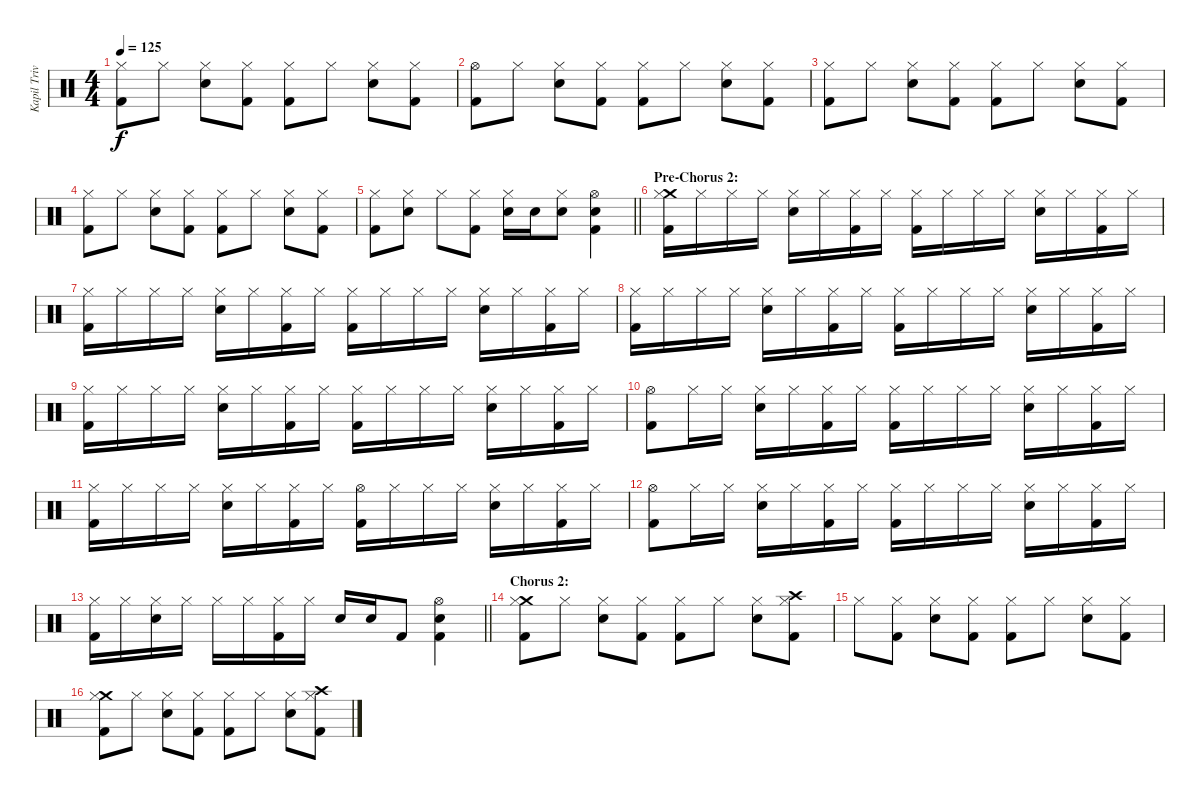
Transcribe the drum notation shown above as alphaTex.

\track ("Kapil Trivedi (Percussion)" "Kapil Triv") {instrument percussion}
\staff {score}
\articulation defaults
\ts (4 4)
\tempo 125
\clef neutral
\ks c
("Hi-Hat (closed)" "Kick (hit) 2").8{dy f} "Hi-Hat (closed)".8 ("Hi-Hat (closed)" "Snare (hit) 2").8 ("Hi-Hat (closed)" "Kick (hit) 2").8 ("Hi-Hat (closed)" "Kick (hit) 2").8 "Hi-Hat (closed)".8 ("Hi-Hat (closed)" "Snare (hit) 2").8 ("Hi-Hat (closed)" "Kick (hit) 2").8 |
("Hi-Hat (open)" "Kick (hit) 2").8 "Hi-Hat (closed)".8 ("Hi-Hat (closed)" "Snare (hit) 2").8 ("Hi-Hat (closed)" "Kick (hit) 2").8 ("Hi-Hat (closed)" "Kick (hit) 2").8 "Hi-Hat (closed)".8 ("Hi-Hat (closed)" "Snare (hit) 2").8 ("Hi-Hat (closed)" "Kick (hit) 2").8 |
("Hi-Hat (closed)" "Kick (hit) 2").8 "Hi-Hat (closed)".8 ("Hi-Hat (closed)" "Snare (hit) 2").8 ("Hi-Hat (closed)" "Kick (hit) 2").8 ("Hi-Hat (closed)" "Kick (hit) 2").8 "Hi-Hat (closed)".8 ("Hi-Hat (closed)" "Snare (hit) 2").8 ("Hi-Hat (closed)" "Kick (hit) 2").8 |
("Hi-Hat (closed)" "Kick (hit) 2").8 "Hi-Hat (closed)".8 ("Hi-Hat (closed)" "Snare (hit) 2").8 ("Hi-Hat (closed)" "Kick (hit) 2").8 ("Hi-Hat (closed)" "Kick (hit) 2").8 "Hi-Hat (closed)".8 ("Hi-Hat (closed)" "Snare (hit) 2").8 ("Hi-Hat (closed)" "Kick (hit) 2").8 |
\barLineRight lightlight
("Hi-Hat (closed)" "Kick (hit) 2").8 ("Hi-Hat (closed)" "Snare (hit) 2").8 "Hi-Hat (closed)".8 ("Hi-Hat (closed)" "Kick (hit) 2").8 ("Hi-Hat (closed)" "Snare (hit) 2").16 "Snare (hit) 2".16 ("Hi-Hat (closed)" "Snare (hit) 2").8 ("Hi-Hat (open)" "Snare (hit) 2" "Kick (hit) 2").4 |
\section ("" "Pre-Chorus 2:")
("Crash medium (hit)" "Hi-Hat (closed)" "Kick (hit) 2").16 "Hi-Hat (closed)".16 "Hi-Hat (closed)".16 "Hi-Hat (closed)".16 ("Hi-Hat (closed)" "Snare (hit) 2").16 "Hi-Hat (closed)".16 ("Hi-Hat (closed)" "Kick (hit) 2").16 "Hi-Hat (closed)".16 ("Hi-Hat (closed)" "Kick (hit) 2").16 "Hi-Hat (closed)".16 "Hi-Hat (closed)".16 "Hi-Hat (closed)".16 ("Hi-Hat (closed)" "Snare (hit) 2").16 "Hi-Hat (closed)".16 ("Hi-Hat (closed)" "Kick (hit) 2").16 "Hi-Hat (closed)".16 |
("Hi-Hat (closed)" "Kick (hit) 2").16 "Hi-Hat (closed)".16 "Hi-Hat (closed)".16 "Hi-Hat (closed)".16 ("Hi-Hat (closed)" "Snare (hit) 2").16 "Hi-Hat (closed)".16 ("Hi-Hat (closed)" "Kick (hit) 2").16 "Hi-Hat (closed)".16 ("Hi-Hat (closed)" "Kick (hit) 2").16 "Hi-Hat (closed)".16 "Hi-Hat (closed)".16 "Hi-Hat (closed)".16 ("Hi-Hat (closed)" "Snare (hit) 2").16 "Hi-Hat (closed)".16 ("Hi-Hat (closed)" "Kick (hit) 2").16 "Hi-Hat (closed)".16 |
("Hi-Hat (closed)" "Kick (hit) 2").16 "Hi-Hat (closed)".16 "Hi-Hat (closed)".16 "Hi-Hat (closed)".16 ("Hi-Hat (closed)" "Snare (hit) 2").16 "Hi-Hat (closed)".16 ("Hi-Hat (closed)" "Kick (hit) 2").16 "Hi-Hat (closed)".16 ("Hi-Hat (closed)" "Kick (hit) 2").16 "Hi-Hat (closed)".16 "Hi-Hat (closed)".16 "Hi-Hat (closed)".16 ("Hi-Hat (closed)" "Snare (hit) 2").16 "Hi-Hat (closed)".16 ("Hi-Hat (closed)" "Kick (hit) 2").16 "Hi-Hat (closed)".16 |
("Hi-Hat (closed)" "Kick (hit) 2").16 "Hi-Hat (closed)".16 "Hi-Hat (closed)".16 "Hi-Hat (closed)".16 ("Hi-Hat (closed)" "Snare (hit) 2").16 "Hi-Hat (closed)".16 ("Hi-Hat (closed)" "Kick (hit) 2").16 "Hi-Hat (closed)".16 ("Hi-Hat (closed)" "Kick (hit) 2").16 "Hi-Hat (closed)".16 "Hi-Hat (closed)".16 "Hi-Hat (closed)".16 ("Hi-Hat (closed)" "Snare (hit) 2").16 "Hi-Hat (closed)".16 ("Hi-Hat (closed)" "Kick (hit) 2").16 "Hi-Hat (closed)".16 |
("Hi-Hat (open)" "Kick (hit) 2").8 "Hi-Hat (closed)".16 "Hi-Hat (closed)".16 ("Hi-Hat (closed)" "Snare (hit) 2").16 "Hi-Hat (closed)".16 ("Hi-Hat (closed)" "Kick (hit) 2").16 "Hi-Hat (closed)".16 ("Hi-Hat (closed)" "Kick (hit) 2").16 "Hi-Hat (closed)".16 "Hi-Hat (closed)".16 "Hi-Hat (closed)".16 ("Hi-Hat (closed)" "Snare (hit) 2").16 "Hi-Hat (closed)".16 ("Hi-Hat (closed)" "Kick (hit) 2").16 "Hi-Hat (closed)".16 |
("Hi-Hat (closed)" "Kick (hit) 2").16 "Hi-Hat (closed)".16 "Hi-Hat (closed)".16 "Hi-Hat (closed)".16 ("Hi-Hat (closed)" "Snare (hit) 2").16 "Hi-Hat (closed)".16 ("Hi-Hat (closed)" "Kick (hit) 2").16 "Hi-Hat (closed)".16 ("Hi-Hat (open)" "Kick (hit) 2").16 "Hi-Hat (closed)".16 "Hi-Hat (closed)".16 "Hi-Hat (closed)".16 ("Hi-Hat (closed)" "Snare (hit) 2").16 "Hi-Hat (closed)".16 ("Hi-Hat (closed)" "Kick (hit) 2").16 "Hi-Hat (closed)".16 |
("Hi-Hat (open)" "Kick (hit) 2").8 "Hi-Hat (closed)".16 "Hi-Hat (closed)".16 ("Hi-Hat (closed)" "Snare (hit) 2").16 "Hi-Hat (closed)".16 ("Hi-Hat (closed)" "Kick (hit) 2").16 "Hi-Hat (closed)".16 ("Hi-Hat (closed)" "Kick (hit) 2").16 "Hi-Hat (closed)".16 "Hi-Hat (closed)".16 "Hi-Hat (closed)".16 ("Hi-Hat (closed)" "Snare (hit) 2").16 "Hi-Hat (closed)".16 ("Hi-Hat (closed)" "Kick (hit) 2").16 "Hi-Hat (closed)".16 |
\barLineRight lightlight
("Hi-Hat (closed)" "Kick (hit) 2").16 "Hi-Hat (closed)".16 ("Hi-Hat (closed)" "Snare (hit) 2").16 "Hi-Hat (closed)".16 "Hi-Hat (closed)".16 "Hi-Hat (closed)".16 ("Hi-Hat (closed)" "Kick (hit) 2").16 "Hi-Hat (closed)".16 "Snare (hit) 2".16 "Snare (hit) 2".16 "Kick (hit) 2".8 ("Hi-Hat (open)" "Snare (hit) 2" "Kick (hit) 2").4 |
\section ("" "Chorus 2:")
("Crash medium (hit)" "Hi-Hat (closed)" "Kick (hit) 2").8 "Hi-Hat (closed)".8 ("Hi-Hat (closed)" "Snare (hit) 2").8 ("Hi-Hat (closed)" "Kick (hit) 2").8 ("Hi-Hat (closed)" "Kick (hit) 2").8 "Hi-Hat (closed)".8 ("Hi-Hat (closed)" "Snare (hit) 2").8 ("Crash high (hit)" "Hi-Hat (closed)" "Kick (hit) 2").8 |
"Hi-Hat (closed)".8 ("Hi-Hat (closed)" "Kick (hit) 2").8 ("Hi-Hat (closed)" "Snare (hit) 2").8 ("Hi-Hat (closed)" "Kick (hit) 2").8 ("Hi-Hat (closed)" "Kick (hit) 2").8 "Hi-Hat (closed)".8 ("Hi-Hat (closed)" "Snare (hit) 2").8 ("Hi-Hat (closed)" "Kick (hit) 2").8 |
("Crash medium (hit)" "Hi-Hat (closed)" "Kick (hit) 2").8 "Hi-Hat (closed)".8 ("Hi-Hat (closed)" "Snare (hit) 2").8 ("Hi-Hat (closed)" "Kick (hit) 2").8 ("Hi-Hat (closed)" "Kick (hit) 2").8 "Hi-Hat (closed)".8 ("Hi-Hat (closed)" "Snare (hit) 2").8 ("Crash high (hit)" "Hi-Hat (closed)" "Kick (hit) 2").8
